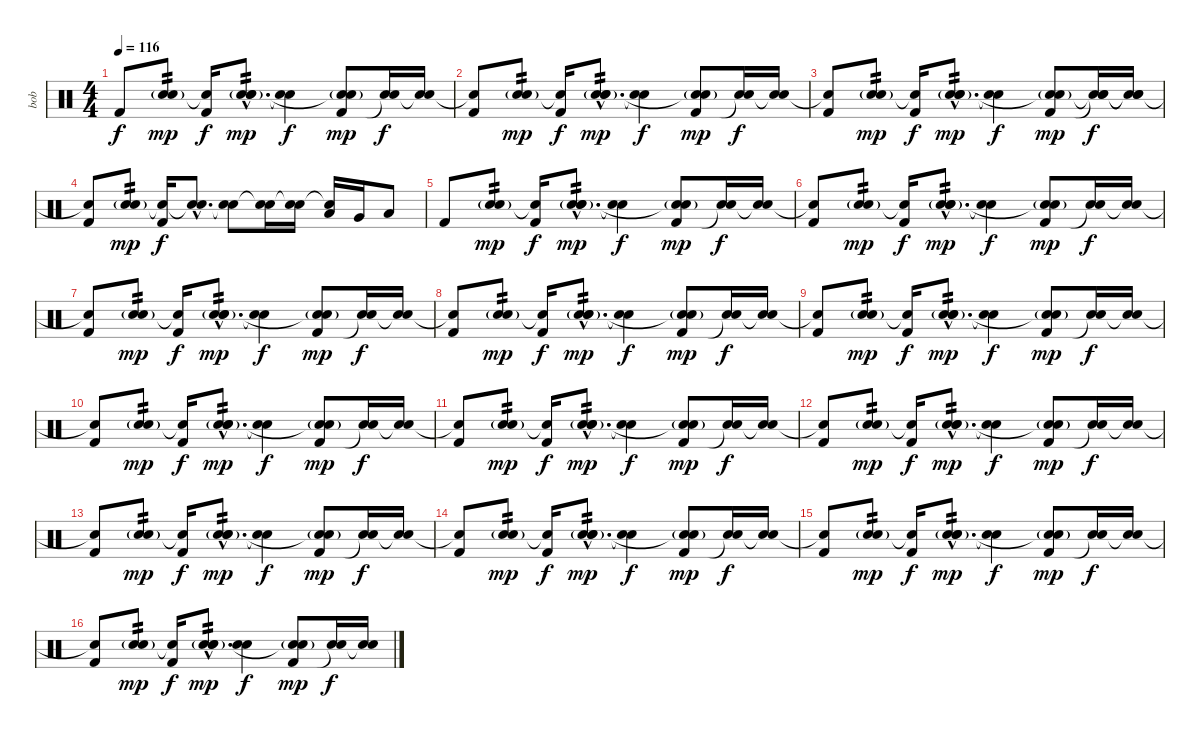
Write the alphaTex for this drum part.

\track ("bob" "bob") {instrument percussion}
\staff {score}
\articulation defaults
\ts (4 4)
\tempo 116
\clef neutral
\ks c "Kick (hit) 2".8{dy f}
("Electric Snare (hit)" "Electric Snare (hit)"{g}).8{tp 2 dy mp} ("Kick (hit) 2" "Snare (hit)"{t}).16{dy f} ("Electric Snare (hit)"{hac} "Snare (hit) 2"{g hac} "Electric Snare (hit)"{g hac}).8{d tp 2 dy mp} ("Electric Snare (hit)" "Snare (hit)"{t}).4{dy f} ("Snare (hit) 2"{g} "Kick (hit) 2" "Snare (hit) 2"{t}).8{dy mp} ("Electric Snare (hit)" "Snare (hit)"{t}).16{dy f} ("Electric Snare (hit)" "Electric Snare (hit)"{t}).16 |
("Kick (hit) 2" "Snare (hit)"{t}).8 ("Electric Snare (hit)" "Electric Snare (hit)"{g}).8{tp 2 dy mp} ("Kick (hit) 2" "Snare (hit)"{t}).16{dy f} ("Electric Snare (hit)"{hac} "Snare (hit) 2"{g hac} "Electric Snare (hit)"{g hac}).8{d tp 2 dy mp} ("Electric Snare (hit)" "Snare (hit)"{t}).4{dy f} ("Snare (hit) 2"{g} "Kick (hit) 2" "Snare (hit) 2"{t}).8{dy mp} ("Electric Snare (hit)" "Snare (hit)"{t}).16{dy f} ("Electric Snare (hit)" "Electric Snare (hit)"{t}).16 |
("Kick (hit) 2" "Snare (hit)"{t}).8 ("Electric Snare (hit)" "Electric Snare (hit)"{g}).8{tp 2 dy mp} ("Kick (hit) 2" "Snare (hit)"{t}).16{dy f} ("Electric Snare (hit)"{hac} "Snare (hit) 2"{g hac} "Electric Snare (hit)"{g hac}).8{d tp 2 dy mp} ("Electric Snare (hit)" "Snare (hit)"{t}).4{dy f} ("Snare (hit) 2"{g} "Kick (hit) 2" "Snare (hit) 2"{t}).8{dy mp} ("Electric Snare (hit)" "Snare (hit)"{t} "Snare (hit)"{t}).16{dy f} ("Electric Snare (hit)" "Snare (hit)"{t} "Electric Snare (hit)"{t}).16 |
("Kick (hit) 2" "Snare (hit)"{t}).8 ("Electric Snare (hit)" "Electric Snare (hit)"{g}).8{tp 2 dy mp} ("Kick (hit) 2" "Snare (hit)"{t}).16{dy f} ("Electric Snare (hit)"{hac} "Snare (hit)"{hac t}).8{d} ("Electric Snare (hit)" "Snare (hit)"{t}).8 ("Electric Snare (hit)" "Snare (hit)"{t}).16 ("Snare (hit) 2" "Snare (hit)"{t}).16 ("Low Tom (hit)" "Snare (hit)"{t}).16 "Very Low Tom (hit)".16 "Low Floor Tom (hit)".8 |
"Kick (hit) 2".8 ("Electric Snare (hit)" "Electric Snare (hit)"{g}).8{tp 2 dy mp} ("Kick (hit) 2" "Snare (hit)"{t}).16{dy f} ("Electric Snare (hit)"{hac} "Snare (hit) 2"{g hac} "Electric Snare (hit)"{g hac}).8{d tp 2 dy mp} ("Electric Snare (hit)" "Snare (hit)"{t}).4{dy f} ("Snare (hit) 2"{g} "Kick (hit) 2" "Snare (hit) 2"{t}).8{dy mp} ("Electric Snare (hit)" "Snare (hit)"{t}).16{dy f} ("Electric Snare (hit)" "Electric Snare (hit)"{t}).16 |
("Kick (hit) 2" "Snare (hit)"{t}).8 ("Electric Snare (hit)" "Electric Snare (hit)"{g}).8{tp 2 dy mp} ("Kick (hit) 2" "Snare (hit)"{t}).16{dy f} ("Electric Snare (hit)"{hac} "Snare (hit) 2"{g hac} "Electric Snare (hit)"{g hac}).8{d tp 2 dy mp} ("Electric Snare (hit)" "Snare (hit)"{t}).4{dy f} ("Snare (hit) 2"{g} "Kick (hit) 2" "Snare (hit) 2"{t}).8{dy mp} ("Electric Snare (hit)" "Snare (hit)"{t}).16{dy f} ("Electric Snare (hit)" "Electric Snare (hit)"{t}).16 |
("Kick (hit) 2" "Snare (hit)"{t}).8 ("Electric Snare (hit)" "Electric Snare (hit)"{g}).8{tp 2 dy mp} ("Kick (hit) 2" "Snare (hit)"{t}).16{dy f} ("Electric Snare (hit)"{hac} "Snare (hit) 2"{g hac} "Electric Snare (hit)"{g hac}).8{d tp 2 dy mp} ("Electric Snare (hit)" "Snare (hit)"{t}).4{dy f} ("Snare (hit) 2"{g} "Kick (hit) 2" "Snare (hit) 2"{t}).8{dy mp} ("Electric Snare (hit)" "Snare (hit)"{t}).16{dy f} ("Electric Snare (hit)" "Electric Snare (hit)"{t}).16 |
("Kick (hit) 2" "Snare (hit)"{t}).8 ("Electric Snare (hit)" "Electric Snare (hit)"{g}).8{tp 2 dy mp} ("Kick (hit) 2" "Snare (hit)"{t}).16{dy f} ("Electric Snare (hit)"{hac} "Snare (hit) 2"{g hac} "Electric Snare (hit)"{g hac}).8{d tp 2 dy mp} ("Electric Snare (hit)" "Snare (hit)"{t}).4{dy f} ("Snare (hit) 2"{g} "Kick (hit) 2" "Snare (hit) 2"{t}).8{dy mp} ("Electric Snare (hit)" "Snare (hit)"{t}).16{dy f} ("Electric Snare (hit)" "Electric Snare (hit)"{t}).16 |
("Kick (hit) 2" "Snare (hit)"{t}).8 ("Electric Snare (hit)" "Electric Snare (hit)"{g}).8{tp 2 dy mp} ("Kick (hit) 2" "Snare (hit)"{t}).16{dy f} ("Electric Snare (hit)"{hac} "Snare (hit) 2"{g hac} "Electric Snare (hit)"{g hac}).8{d tp 2 dy mp} ("Electric Snare (hit)" "Snare (hit)"{t}).4{dy f} ("Snare (hit) 2"{g} "Kick (hit) 2" "Snare (hit) 2"{t}).8{dy mp} ("Electric Snare (hit)" "Snare (hit)"{t}).16{dy f} ("Electric Snare (hit)" "Electric Snare (hit)"{t}).16 |
("Kick (hit) 2" "Snare (hit)"{t}).8 ("Electric Snare (hit)" "Electric Snare (hit)"{g}).8{tp 2 dy mp} ("Kick (hit) 2" "Snare (hit)"{t}).16{dy f} ("Electric Snare (hit)"{hac} "Snare (hit) 2"{g hac} "Electric Snare (hit)"{g hac}).8{d tp 2 dy mp} ("Electric Snare (hit)" "Snare (hit)"{t}).4{dy f} ("Snare (hit) 2"{g} "Kick (hit) 2" "Snare (hit) 2"{t}).8{dy mp} ("Electric Snare (hit)" "Snare (hit)"{t}).16{dy f} ("Electric Snare (hit)" "Electric Snare (hit)"{t}).16 |
("Kick (hit) 2" "Snare (hit)"{t}).8 ("Electric Snare (hit)" "Electric Snare (hit)"{g}).8{tp 2 dy mp} ("Kick (hit) 2" "Snare (hit)"{t}).16{dy f} ("Electric Snare (hit)"{hac} "Snare (hit) 2"{g hac} "Electric Snare (hit)"{g hac}).8{d tp 2 dy mp} ("Electric Snare (hit)" "Snare (hit)"{t}).4{dy f} ("Snare (hit) 2"{g} "Kick (hit) 2" "Snare (hit) 2"{t}).8{dy mp} ("Electric Snare (hit)" "Snare (hit)"{t}).16{dy f} ("Electric Snare (hit)" "Electric Snare (hit)"{t}).16 |
("Kick (hit) 2" "Snare (hit)"{t}).8 ("Electric Snare (hit)" "Electric Snare (hit)"{g}).8{tp 2 dy mp} ("Kick (hit) 2" "Snare (hit)"{t}).16{dy f} ("Electric Snare (hit)"{hac} "Snare (hit) 2"{g hac} "Electric Snare (hit)"{g hac}).8{d tp 2 dy mp} ("Electric Snare (hit)" "Snare (hit)"{t}).4{dy f} ("Snare (hit) 2"{g} "Kick (hit) 2" "Snare (hit) 2"{t}).8{dy mp} ("Electric Snare (hit)" "Snare (hit)"{t}).16{dy f} ("Electric Snare (hit)" "Electric Snare (hit)"{t}).16 |
("Kick (hit) 2" "Snare (hit)"{t}).8 ("Electric Snare (hit)" "Electric Snare (hit)"{g}).8{tp 2 dy mp} ("Kick (hit) 2" "Snare (hit)"{t}).16{dy f} ("Electric Snare (hit)"{hac} "Snare (hit) 2"{g hac} "Electric Snare (hit)"{g hac}).8{d tp 2 dy mp} ("Electric Snare (hit)" "Snare (hit)"{t}).4{dy f} ("Snare (hit) 2"{g} "Kick (hit) 2" "Snare (hit) 2"{t}).8{dy mp} ("Electric Snare (hit)" "Snare (hit)"{t}).16{dy f} ("Electric Snare (hit)" "Electric Snare (hit)"{t}).16 |
("Kick (hit) 2" "Snare (hit)"{t}).8 ("Electric Snare (hit)" "Electric Snare (hit)"{g}).8{tp 2 dy mp} ("Kick (hit) 2" "Snare (hit)"{t}).16{dy f} ("Electric Snare (hit)"{hac} "Snare (hit) 2"{g hac} "Electric Snare (hit)"{g hac}).8{d tp 2 dy mp} ("Electric Snare (hit)" "Snare (hit)"{t}).4{dy f} ("Snare (hit) 2"{g} "Kick (hit) 2" "Snare (hit) 2"{t}).8{dy mp} ("Electric Snare (hit)" "Snare (hit)"{t}).16{dy f} ("Electric Snare (hit)" "Electric Snare (hit)"{t}).16 |
("Kick (hit) 2" "Snare (hit)"{t}).8 ("Electric Snare (hit)" "Electric Snare (hit)"{g}).8{tp 2 dy mp} ("Kick (hit) 2" "Snare (hit)"{t}).16{dy f} ("Electric Snare (hit)"{hac} "Snare (hit) 2"{g hac} "Electric Snare (hit)"{g hac}).8{d tp 2 dy mp} ("Electric Snare (hit)" "Snare (hit)"{t}).4{dy f} ("Snare (hit) 2"{g} "Kick (hit) 2" "Snare (hit) 2"{t}).8{dy mp} ("Electric Snare (hit)" "Snare (hit)"{t}).16{dy f} ("Electric Snare (hit)" "Electric Snare (hit)"{t}).16 |
("Kick (hit) 2" "Snare (hit)"{t}).8 ("Electric Snare (hit)" "Electric Snare (hit)"{g}).8{tp 2 dy mp} ("Kick (hit) 2" "Snare (hit)"{t}).16{dy f} ("Electric Snare (hit)"{hac} "Snare (hit) 2"{g hac} "Electric Snare (hit)"{g hac}).8{d tp 2 dy mp} ("Electric Snare (hit)" "Snare (hit)"{t}).4{dy f} ("Snare (hit) 2"{g} "Kick (hit) 2" "Snare (hit) 2"{t}).8{dy mp} ("Electric Snare (hit)" "Snare (hit)"{t}).16{dy f} ("Electric Snare (hit)" "Electric Snare (hit)"{t}).16
